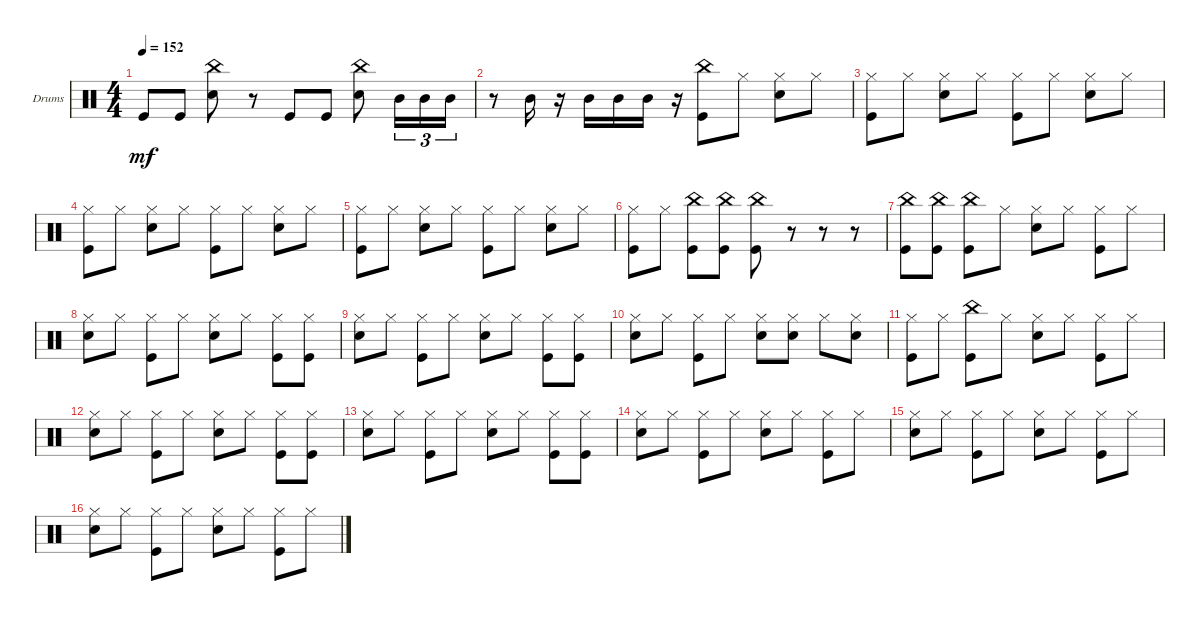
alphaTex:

\defaultSystemsLayout 4
\bracketExtendMode groupsimilarinstruments
\firstSystemTrackNameOrientation horizontal
\otherSystemsTrackNameOrientation horizontal
\track ("Drumkit" "Drums") {instrument percussion}
\staff {score}
\articulation defaults
\ts (4 4)
\tempo 152
\clef neutral
\ks c "Kick (hit)".8{dy mf} "Kick (hit)".8
("Snare (hit) 2" "China (hit)").8 r.8 "Kick (hit)".8 "Kick (hit)".8 ("Snare (hit) 2" "China (hit)").8 "Mid Tom (hit)".16{tu (3 2)} "Mid Tom (hit)".16{tu (3 2)} "Mid Tom (hit)".16{tu (3 2)} |
r.8 "Mid Tom (hit)".16 r.16 "Mid Tom (hit)".16 "Mid Tom (hit)".16 "Mid Tom (hit)".16 r.16 ("Kick (hit)" "China (hit)").8 "Hi-Hat (closed)".8 ("Snare (hit) 2" "Hi-Hat (closed)").8 "Hi-Hat (closed)".8 |
("Hi-Hat (closed)" "Kick (hit)").8 "Hi-Hat (closed)".8 ("Hi-Hat (closed)" "Snare (hit) 2").8 "Hi-Hat (closed)".8 ("Hi-Hat (closed)" "Kick (hit)").8 "Hi-Hat (closed)".8 ("Hi-Hat (closed)" "Snare (hit) 2").8 "Hi-Hat (closed)".8 |
("Hi-Hat (closed)" "Kick (hit)").8 "Hi-Hat (closed)".8 ("Hi-Hat (closed)" "Snare (hit) 2").8 "Hi-Hat (closed)".8 ("Hi-Hat (closed)" "Kick (hit)").8 "Hi-Hat (closed)".8 ("Hi-Hat (closed)" "Snare (hit) 2").8 "Hi-Hat (closed)".8 |
("Hi-Hat (closed)" "Kick (hit)").8 "Hi-Hat (closed)".8 ("Hi-Hat (closed)" "Snare (hit) 2").8 "Hi-Hat (closed)".8 ("Hi-Hat (closed)" "Kick (hit)").8 "Hi-Hat (closed)".8 ("Hi-Hat (closed)" "Snare (hit) 2").8 "Hi-Hat (closed)".8 |
("Hi-Hat (closed)" "Kick (hit)").8 "Hi-Hat (closed)".8 ("Kick (hit)" "China (hit)").8 ("Kick (hit)" "China (hit)").8 ("Kick (hit)" "China (hit)").8 r.8 r.8 r.8 |
("Kick (hit)" "China (hit)").8 ("Kick (hit)" "China (hit)").8 ("Kick (hit)" "China (hit)").8 "Hi-Hat (closed)".8 ("Hi-Hat (closed)" "Snare (hit) 2").8 "Hi-Hat (closed)".8 ("Hi-Hat (closed)" "Kick (hit)").8 "Hi-Hat (closed)".8 |
("Hi-Hat (closed)" "Snare (hit) 2").8 "Hi-Hat (closed)".8 ("Hi-Hat (closed)" "Kick (hit)").8 "Hi-Hat (closed)".8 ("Hi-Hat (closed)" "Snare (hit) 2").8 "Hi-Hat (closed)".8 ("Hi-Hat (closed)" "Kick (hit)").8 ("Hi-Hat (closed)" "Kick (hit)").8 |
("Hi-Hat (closed)" "Snare (hit) 2").8 "Hi-Hat (closed)".8 ("Hi-Hat (closed)" "Kick (hit)").8 "Hi-Hat (closed)".8 ("Hi-Hat (closed)" "Snare (hit) 2").8 "Hi-Hat (closed)".8 ("Hi-Hat (closed)" "Kick (hit)").8 ("Hi-Hat (closed)" "Kick (hit)").8 |
("Snare (hit) 2" "Hi-Hat (closed)").8 "Hi-Hat (closed)".8 ("Kick (hit)" "Hi-Hat (closed)").8 "Hi-Hat (closed)".8 ("Snare (hit) 2" "Hi-Hat (closed)").8 ("Hi-Hat (closed)" "Snare (hit) 2").8 "Hi-Hat (closed)".8 ("Snare (hit) 2" "Hi-Hat (closed)").8 |
("Kick (hit)" "Hi-Hat (closed)").8 "Hi-Hat (closed)".8 ("Kick (hit)" "China (hit)").8 "Hi-Hat (closed)".8 ("Hi-Hat (closed)" "Snare (hit) 2").8 "Hi-Hat (closed)".8 ("Hi-Hat (closed)" "Kick (hit)").8 "Hi-Hat (closed)".8 |
("Hi-Hat (closed)" "Snare (hit) 2").8 "Hi-Hat (closed)".8 ("Hi-Hat (closed)" "Kick (hit)").8 "Hi-Hat (closed)".8 ("Hi-Hat (closed)" "Snare (hit) 2").8 "Hi-Hat (closed)".8 ("Hi-Hat (closed)" "Kick (hit)").8 ("Hi-Hat (closed)" "Kick (hit)").8 |
("Hi-Hat (closed)" "Snare (hit) 2").8 "Hi-Hat (closed)".8 ("Hi-Hat (closed)" "Kick (hit)").8 "Hi-Hat (closed)".8 ("Hi-Hat (closed)" "Snare (hit) 2").8 "Hi-Hat (closed)".8 ("Hi-Hat (closed)" "Kick (hit)").8 ("Hi-Hat (closed)" "Kick (hit)").8 |
("Snare (hit) 2" "Hi-Hat (closed)").8 "Hi-Hat (closed)".8 ("Kick (hit)" "Hi-Hat (closed)").8 "Hi-Hat (closed)".8 ("Snare (hit) 2" "Hi-Hat (closed)").8 "Hi-Hat (closed)".8 ("Hi-Hat (closed)" "Kick (hit)").8 "Hi-Hat (closed)".8 |
("Snare (hit) 2" "Hi-Hat (closed)").8 "Hi-Hat (closed)".8 ("Hi-Hat (closed)" "Kick (hit)").8 "Hi-Hat (closed)".8 ("Hi-Hat (closed)" "Snare (hit) 2").8 "Hi-Hat (closed)".8 ("Hi-Hat (closed)" "Kick (hit)").8 "Hi-Hat (closed)".8 |
("Snare (hit) 2" "Hi-Hat (closed)").8 "Hi-Hat (closed)".8 ("Hi-Hat (closed)" "Kick (hit)").8 "Hi-Hat (closed)".8 ("Hi-Hat (closed)" "Snare (hit) 2").8 "Hi-Hat (closed)".8 ("Hi-Hat (closed)" "Kick (hit)").8 "Hi-Hat (closed)".8
